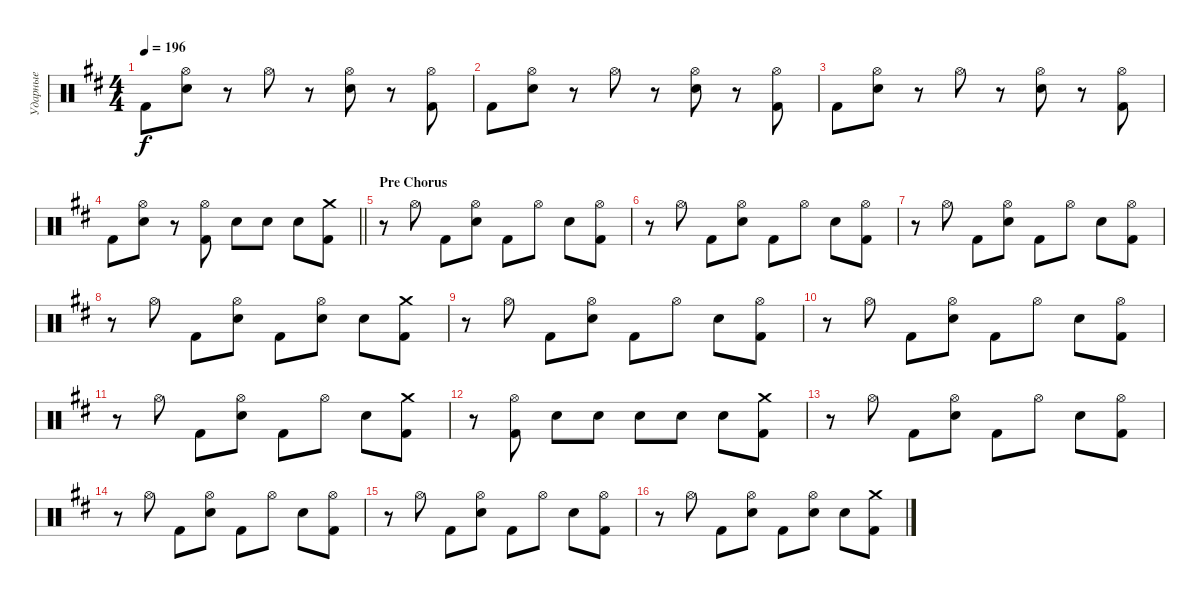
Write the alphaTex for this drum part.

\track ("Ударные" "Ударные") {instrument percussion}
\staff {score}
\articulation defaults
\ts (4 4)
\tempo 196
\clef neutral
\ks d "Kick (hit) 2".8{dy f}
("Hi-Hat (open)" "Electric Snare (hit)").8 r.8 "Hi-Hat (open)".8 r.8 ("Hi-Hat (open)" "Electric Snare (hit)").8 r.8 ("Hi-Hat (open)" "Kick (hit) 2").8 |
"Kick (hit) 2".8 ("Hi-Hat (open)" "Electric Snare (hit)").8 r.8 "Hi-Hat (open)".8 r.8 ("Hi-Hat (open)" "Electric Snare (hit)").8 r.8 ("Hi-Hat (open)" "Kick (hit) 2").8 |
"Kick (hit) 2".8 ("Hi-Hat (open)" "Electric Snare (hit)").8 r.8 "Hi-Hat (open)".8 r.8 ("Hi-Hat (open)" "Electric Snare (hit)").8 r.8 ("Hi-Hat (open)" "Kick (hit) 2").8 |
\barLineRight lightlight "Kick (hit) 2".8
("Hi-Hat (open)" "Electric Snare (hit)").8 r.8 ("Hi-Hat (open)" "Kick (hit) 2").8 "Electric Snare (hit)".8 "Electric Snare (hit)".8 "Electric Snare (hit)".8 ("Crash medium (hit)" "Kick (hit) 2").8 |
\section ("" "Pre Chorus")
r.8 "Hi-Hat (open)".8 "Kick (hit) 2".8 ("Hi-Hat (open)" "Electric Snare (hit)").8 "Kick (hit) 2".8 "Hi-Hat (open)".8 "Electric Snare (hit)".8 ("Hi-Hat (open)" "Kick (hit) 2").8 |
r.8 "Hi-Hat (open)".8 "Kick (hit) 2".8 ("Hi-Hat (open)" "Electric Snare (hit)").8 "Kick (hit) 2".8 "Hi-Hat (open)".8 "Electric Snare (hit)".8 ("Hi-Hat (open)" "Kick (hit) 2").8 |
r.8 "Hi-Hat (open)".8 "Kick (hit) 2".8 ("Hi-Hat (open)" "Electric Snare (hit)").8 "Kick (hit) 2".8 "Hi-Hat (open)".8 "Electric Snare (hit)".8 ("Hi-Hat (open)" "Kick (hit) 2").8 |
r.8 "Hi-Hat (open)".8 "Kick (hit) 2".8 ("Hi-Hat (open)" "Electric Snare (hit)").8 "Kick (hit) 2".8 ("Hi-Hat (open)" "Electric Snare (hit)").8 "Electric Snare (hit)".8 ("Crash medium (hit)" "Kick (hit) 2").8 |
r.8 "Hi-Hat (open)".8 "Kick (hit) 2".8 ("Hi-Hat (open)" "Electric Snare (hit)").8 "Kick (hit) 2".8 "Hi-Hat (open)".8 "Electric Snare (hit)".8 ("Hi-Hat (open)" "Kick (hit) 2").8 |
r.8 "Hi-Hat (open)".8 "Kick (hit) 2".8 ("Hi-Hat (open)" "Electric Snare (hit)").8 "Kick (hit) 2".8 "Hi-Hat (open)".8 "Electric Snare (hit)".8 ("Hi-Hat (open)" "Kick (hit) 2").8 |
r.8 "Hi-Hat (open)".8 "Kick (hit) 2".8 ("Hi-Hat (open)" "Electric Snare (hit)").8 "Kick (hit) 2".8 "Hi-Hat (open)".8 "Electric Snare (hit)".8 ("Crash medium (hit)" "Kick (hit) 2").8 |
r.8 ("Hi-Hat (open)" "Kick (hit) 2").8 "Electric Snare (hit)".8 "Electric Snare (hit)".8 "Electric Snare (hit)".8 "Electric Snare (hit)".8 "Electric Snare (hit)".8 ("Crash medium (hit)" "Kick (hit) 2").8 |
r.8 "Hi-Hat (open)".8 "Kick (hit) 2".8 ("Hi-Hat (open)" "Electric Snare (hit)").8 "Kick (hit) 2".8 "Hi-Hat (open)".8 "Electric Snare (hit)".8 ("Hi-Hat (open)" "Kick (hit) 2").8 |
r.8 "Hi-Hat (open)".8 "Kick (hit) 2".8 ("Hi-Hat (open)" "Electric Snare (hit)").8 "Kick (hit) 2".8 "Hi-Hat (open)".8 "Electric Snare (hit)".8 ("Hi-Hat (open)" "Kick (hit) 2").8 |
r.8 "Hi-Hat (open)".8 "Kick (hit) 2".8 ("Hi-Hat (open)" "Electric Snare (hit)").8 "Kick (hit) 2".8 "Hi-Hat (open)".8 "Electric Snare (hit)".8 ("Hi-Hat (open)" "Kick (hit) 2").8 |
r.8 "Hi-Hat (open)".8 "Kick (hit) 2".8 ("Hi-Hat (open)" "Electric Snare (hit)").8 "Kick (hit) 2".8 ("Hi-Hat (open)" "Electric Snare (hit)").8 "Electric Snare (hit)".8 ("Crash medium (hit)" "Kick (hit) 2").8
